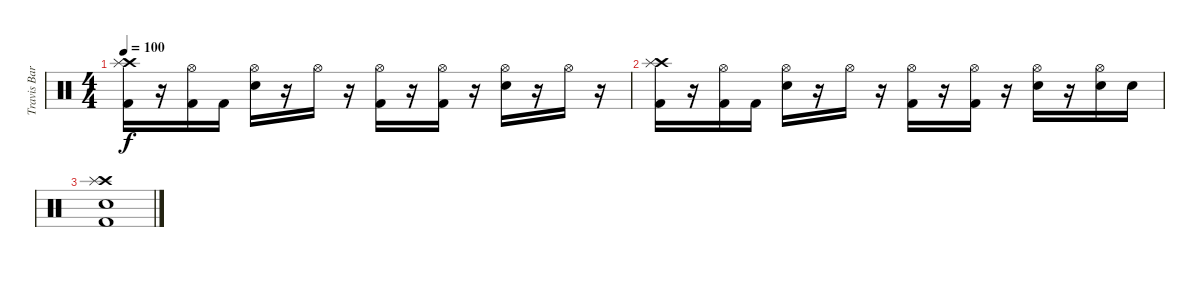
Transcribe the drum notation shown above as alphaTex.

\track ("Travis Barker (Schlagzeug)" "Travis Bar") {instrument percussion}
\staff {score}
\articulation defaults
\ts (4 4)
\tempo 100
\clef neutral
\ks c
("Crash high (hit)" "Splash (hit)" "Kick (hit) 2").16{dy f} r.16 ("Hi-Hat (open)" "Kick (hit) 2").16 "Kick (hit) 2".16 ("Hi-Hat (open)" "Electric Snare (hit)").16 r.16 "Hi-Hat (open)".16 r.16 ("Hi-Hat (open)" "Kick (hit) 2").16 r.16 ("Hi-Hat (open)" "Kick (hit) 2").16 r.16 ("Hi-Hat (open)" "Electric Snare (hit)").16 r.16 "Hi-Hat (open)".16 r.16 |
("Crash high (hit)" "Splash (hit)" "Kick (hit) 2").16 r.16 ("Hi-Hat (open)" "Kick (hit) 2").16 "Kick (hit) 2".16 ("Hi-Hat (open)" "Electric Snare (hit)").16 r.16 "Hi-Hat (open)".16 r.16 ("Hi-Hat (open)" "Kick (hit) 2").16 r.16 ("Hi-Hat (open)" "Kick (hit) 2").16 r.16 ("Hi-Hat (open)" "Electric Snare (hit)").16 r.16 ("Hi-Hat (open)" "Electric Snare (hit)").16 "Electric Snare (hit)".16 |
("Crash high (hit)" "Splash (hit)" "Electric Snare (hit)" "Kick (hit) 2").1
